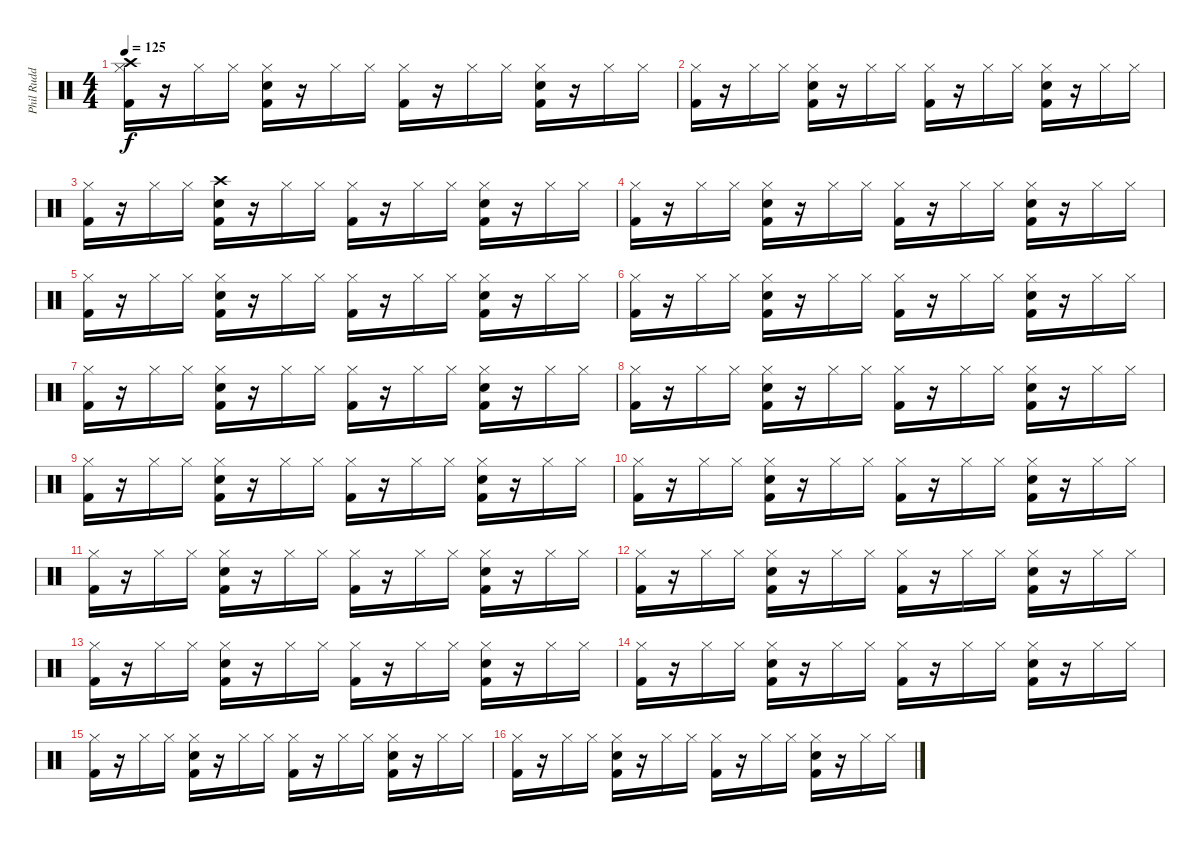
\track ("Phil Rudd" "Phil Rudd") {instrument percussion}
\staff {score}
\articulation defaults
\ts (4 4)
\tempo 125
\clef neutral
\ks c
("Hi-Hat (closed)" "Crash high (hit)" "Kick (hit) 2").16{dy f} r.16 "Hi-Hat (closed)".16 "Hi-Hat (closed)".16 ("Hi-Hat (closed)" "Snare (hit) 2" "Kick (hit) 2").16 r.16 "Hi-Hat (closed)".16 "Hi-Hat (closed)".16 ("Hi-Hat (closed)" "Kick (hit) 2").16 r.16 "Hi-Hat (closed)".16 "Hi-Hat (closed)".16 ("Hi-Hat (closed)" "Snare (hit) 2" "Kick (hit) 2").16 r.16 "Hi-Hat (closed)".16 "Hi-Hat (closed)".16 |
("Hi-Hat (closed)" "Kick (hit) 2").16 r.16 "Hi-Hat (closed)".16 "Hi-Hat (closed)".16 ("Hi-Hat (closed)" "Snare (hit) 2" "Kick (hit) 2").16 r.16 "Hi-Hat (closed)".16 "Hi-Hat (closed)".16 ("Hi-Hat (closed)" "Kick (hit) 2").16 r.16 "Hi-Hat (closed)".16 "Hi-Hat (closed)".16 ("Hi-Hat (closed)" "Snare (hit) 2" "Kick (hit) 2").16 r.16 "Hi-Hat (closed)".16 "Hi-Hat (closed)".16 |
("Hi-Hat (closed)" "Kick (hit) 2").16 r.16 "Hi-Hat (closed)".16 "Hi-Hat (closed)".16 ("Crash high (hit)" "Snare (hit) 2" "Kick (hit) 2").16 r.16 "Hi-Hat (closed)".16 "Hi-Hat (closed)".16 ("Hi-Hat (closed)" "Kick (hit) 2").16 r.16 "Hi-Hat (closed)".16 "Hi-Hat (closed)".16 ("Hi-Hat (closed)" "Snare (hit) 2" "Kick (hit) 2").16 r.16 "Hi-Hat (closed)".16 "Hi-Hat (closed)".16 |
("Hi-Hat (closed)" "Kick (hit) 2").16 r.16 "Hi-Hat (closed)".16 "Hi-Hat (closed)".16 ("Hi-Hat (closed)" "Snare (hit) 2" "Kick (hit) 2").16 r.16 "Hi-Hat (closed)".16 "Hi-Hat (closed)".16 ("Hi-Hat (closed)" "Kick (hit) 2").16 r.16 "Hi-Hat (closed)".16 "Hi-Hat (closed)".16 ("Hi-Hat (closed)" "Snare (hit) 2" "Kick (hit) 2").16 r.16 "Hi-Hat (closed)".16 "Hi-Hat (closed)".16 |
("Hi-Hat (closed)" "Kick (hit) 2").16 r.16 "Hi-Hat (closed)".16 "Hi-Hat (closed)".16 ("Hi-Hat (closed)" "Snare (hit) 2" "Kick (hit) 2").16 r.16 "Hi-Hat (closed)".16 "Hi-Hat (closed)".16 ("Hi-Hat (closed)" "Kick (hit) 2").16 r.16 "Hi-Hat (closed)".16 "Hi-Hat (closed)".16 ("Hi-Hat (closed)" "Snare (hit) 2" "Kick (hit) 2").16 r.16 "Hi-Hat (closed)".16 "Hi-Hat (closed)".16 |
("Hi-Hat (closed)" "Kick (hit) 2").16 r.16 "Hi-Hat (closed)".16 "Hi-Hat (closed)".16 ("Hi-Hat (closed)" "Snare (hit) 2" "Kick (hit) 2").16 r.16 "Hi-Hat (closed)".16 "Hi-Hat (closed)".16 ("Hi-Hat (closed)" "Kick (hit) 2").16 r.16 "Hi-Hat (closed)".16 "Hi-Hat (closed)".16 ("Hi-Hat (closed)" "Snare (hit) 2" "Kick (hit) 2").16 r.16 "Hi-Hat (closed)".16 "Hi-Hat (closed)".16 |
("Hi-Hat (closed)" "Kick (hit) 2").16 r.16 "Hi-Hat (closed)".16 "Hi-Hat (closed)".16 ("Hi-Hat (closed)" "Snare (hit) 2" "Kick (hit) 2").16 r.16 "Hi-Hat (closed)".16 "Hi-Hat (closed)".16 ("Hi-Hat (closed)" "Kick (hit) 2").16 r.16 "Hi-Hat (closed)".16 "Hi-Hat (closed)".16 ("Hi-Hat (closed)" "Snare (hit) 2" "Kick (hit) 2").16 r.16 "Hi-Hat (closed)".16 "Hi-Hat (closed)".16 |
("Hi-Hat (closed)" "Kick (hit) 2").16 r.16 "Hi-Hat (closed)".16 "Hi-Hat (closed)".16 ("Hi-Hat (closed)" "Snare (hit) 2" "Kick (hit) 2").16 r.16 "Hi-Hat (closed)".16 "Hi-Hat (closed)".16 ("Hi-Hat (closed)" "Kick (hit) 2").16 r.16 "Hi-Hat (closed)".16 "Hi-Hat (closed)".16 ("Hi-Hat (closed)" "Snare (hit) 2" "Kick (hit) 2").16 r.16 "Hi-Hat (closed)".16 "Hi-Hat (closed)".16 |
("Hi-Hat (closed)" "Kick (hit) 2").16 r.16 "Hi-Hat (closed)".16 "Hi-Hat (closed)".16 ("Hi-Hat (closed)" "Snare (hit) 2" "Kick (hit) 2").16 r.16 "Hi-Hat (closed)".16 "Hi-Hat (closed)".16 ("Hi-Hat (closed)" "Kick (hit) 2").16 r.16 "Hi-Hat (closed)".16 "Hi-Hat (closed)".16 ("Hi-Hat (closed)" "Snare (hit) 2" "Kick (hit) 2").16 r.16 "Hi-Hat (closed)".16 "Hi-Hat (closed)".16 |
("Hi-Hat (closed)" "Kick (hit) 2").16 r.16 "Hi-Hat (closed)".16 "Hi-Hat (closed)".16 ("Hi-Hat (closed)" "Snare (hit) 2" "Kick (hit) 2").16 r.16 "Hi-Hat (closed)".16 "Hi-Hat (closed)".16 ("Hi-Hat (closed)" "Kick (hit) 2").16 r.16 "Hi-Hat (closed)".16 "Hi-Hat (closed)".16 ("Hi-Hat (closed)" "Snare (hit) 2" "Kick (hit) 2").16 r.16 "Hi-Hat (closed)".16 "Hi-Hat (closed)".16 |
("Hi-Hat (closed)" "Kick (hit) 2").16 r.16 "Hi-Hat (closed)".16 "Hi-Hat (closed)".16 ("Hi-Hat (closed)" "Snare (hit) 2" "Kick (hit) 2").16 r.16 "Hi-Hat (closed)".16 "Hi-Hat (closed)".16 ("Hi-Hat (closed)" "Kick (hit) 2").16 r.16 "Hi-Hat (closed)".16 "Hi-Hat (closed)".16 ("Hi-Hat (closed)" "Snare (hit) 2" "Kick (hit) 2").16 r.16 "Hi-Hat (closed)".16 "Hi-Hat (closed)".16 |
("Hi-Hat (closed)" "Kick (hit) 2").16 r.16 "Hi-Hat (closed)".16 "Hi-Hat (closed)".16 ("Hi-Hat (closed)" "Snare (hit) 2" "Kick (hit) 2").16 r.16 "Hi-Hat (closed)".16 "Hi-Hat (closed)".16 ("Hi-Hat (closed)" "Kick (hit) 2").16 r.16 "Hi-Hat (closed)".16 "Hi-Hat (closed)".16 ("Hi-Hat (closed)" "Snare (hit) 2" "Kick (hit) 2").16 r.16 "Hi-Hat (closed)".16 "Hi-Hat (closed)".16 |
("Hi-Hat (closed)" "Kick (hit) 2").16 r.16 "Hi-Hat (closed)".16 "Hi-Hat (closed)".16 ("Hi-Hat (closed)" "Snare (hit) 2" "Kick (hit) 2").16 r.16 "Hi-Hat (closed)".16 "Hi-Hat (closed)".16 ("Hi-Hat (closed)" "Kick (hit) 2").16 r.16 "Hi-Hat (closed)".16 "Hi-Hat (closed)".16 ("Hi-Hat (closed)" "Snare (hit) 2" "Kick (hit) 2").16 r.16 "Hi-Hat (closed)".16 "Hi-Hat (closed)".16 |
("Hi-Hat (closed)" "Kick (hit) 2").16 r.16 "Hi-Hat (closed)".16 "Hi-Hat (closed)".16 ("Hi-Hat (closed)" "Snare (hit) 2" "Kick (hit) 2").16 r.16 "Hi-Hat (closed)".16 "Hi-Hat (closed)".16 ("Hi-Hat (closed)" "Kick (hit) 2").16 r.16 "Hi-Hat (closed)".16 "Hi-Hat (closed)".16 ("Hi-Hat (closed)" "Snare (hit) 2" "Kick (hit) 2").16 r.16 "Hi-Hat (closed)".16 "Hi-Hat (closed)".16 |
("Hi-Hat (closed)" "Kick (hit) 2").16 r.16 "Hi-Hat (closed)".16 "Hi-Hat (closed)".16 ("Hi-Hat (closed)" "Snare (hit) 2" "Kick (hit) 2").16 r.16 "Hi-Hat (closed)".16 "Hi-Hat (closed)".16 ("Hi-Hat (closed)" "Kick (hit) 2").16 r.16 "Hi-Hat (closed)".16 "Hi-Hat (closed)".16 ("Hi-Hat (closed)" "Snare (hit) 2" "Kick (hit) 2").16 r.16 "Hi-Hat (closed)".16 "Hi-Hat (closed)".16 |
("Hi-Hat (closed)" "Kick (hit) 2").16 r.16 "Hi-Hat (closed)".16 "Hi-Hat (closed)".16 ("Hi-Hat (closed)" "Snare (hit) 2" "Kick (hit) 2").16 r.16 "Hi-Hat (closed)".16 "Hi-Hat (closed)".16 ("Hi-Hat (closed)" "Kick (hit) 2").16 r.16 "Hi-Hat (closed)".16 "Hi-Hat (closed)".16 ("Hi-Hat (closed)" "Snare (hit) 2" "Kick (hit) 2").16 r.16 "Hi-Hat (closed)".16 "Hi-Hat (closed)".16
